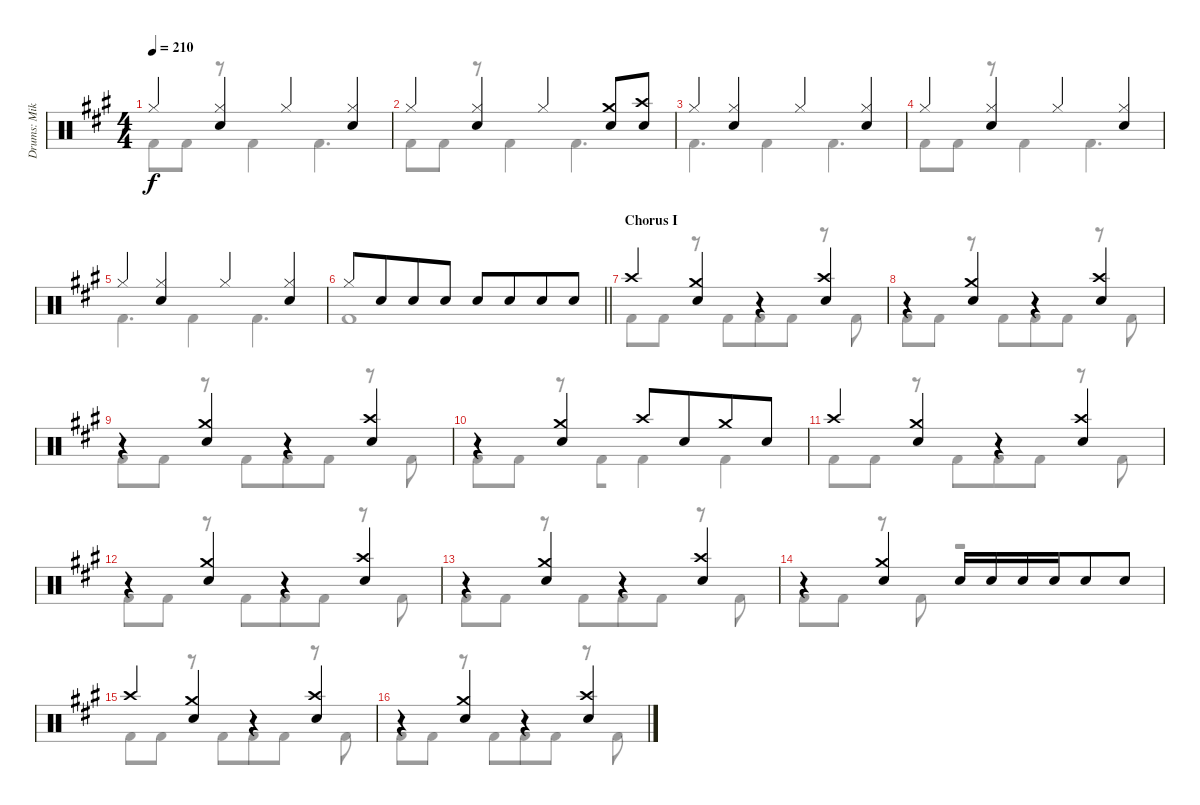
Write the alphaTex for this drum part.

\track ("Drums: Mikkey" "Drums: Mik") {instrument percussion}
\staff {score}
\articulation defaults
\voice
\ts (4 4)
\tempo 210
\clef neutral
\ks a "Hi-Hat (closed)".4{dy f}
("Hi-Hat (closed)" "Snare (hit) 2").4 "Hi-Hat (closed)".4 ("Hi-Hat (closed)" "Snare (hit) 2").4 |
"Hi-Hat (closed)".4 ("Hi-Hat (closed)" "Snare (hit) 2").4 "Hi-Hat (closed)".4 ("Crash medium (hit)" "Snare (hit) 2").8 ("Crash high (hit)" "Snare (hit) 2").8 |
"Hi-Hat (closed)".4 ("Hi-Hat (closed)" "Snare (hit) 2").4 "Hi-Hat (closed)".4 ("Hi-Hat (closed)" "Snare (hit) 2").4 |
"Hi-Hat (closed)".4 ("Hi-Hat (closed)" "Snare (hit) 2").4 "Hi-Hat (closed)".4 ("Hi-Hat (closed)" "Snare (hit) 2").4 |
"Hi-Hat (closed)".4 ("Hi-Hat (closed)" "Snare (hit) 2").4 "Hi-Hat (closed)".4 ("Hi-Hat (closed)" "Snare (hit) 2").4 |
\barLineRight lightlight "Hi-Hat (closed)".8 "Snare (hit) 2".8{beam merge} "Snare (hit) 2".8 "Snare (hit) 2".8 "Snare (hit) 2".8 "Snare (hit) 2".8{beam merge} "Snare (hit) 2".8 "Snare (hit) 2".8
|
\section ("" "Chorus I")
"Crash high (hit)".4 ("Crash medium (hit)" "Snare (hit) 2").4 r.4 ("Crash high (hit)" "Snare (hit) 2").4 |
r.4 ("Crash medium (hit)" "Snare (hit) 2").4 r.4 ("Crash high (hit)" "Snare (hit) 2").4 |
r.4 ("Crash medium (hit)" "Snare (hit) 2").4 r.4 ("Crash high (hit)" "Snare (hit) 2").4 |
r.4 ("Crash medium (hit)" "Snare (hit) 2").4 "Crash high (hit)".8 "Snare (hit) 2".8{beam merge} "Crash medium (hit)".8 "Snare (hit) 2".8 |
"Crash high (hit)".4 ("Crash medium (hit)" "Snare (hit) 2").4 r.4 ("Crash high (hit)" "Snare (hit) 2").4 |
r.4 ("Crash medium (hit)" "Snare (hit) 2").4 r.4 ("Crash high (hit)" "Snare (hit) 2").4 |
r.4 ("Crash medium (hit)" "Snare (hit) 2").4 r.4 ("Crash high (hit)" "Snare (hit) 2").4 |
r.4 ("Crash medium (hit)" "Snare (hit) 2").4 "Snare (hit) 2".16{beam merge} "Snare (hit) 2".16 "Snare (hit) 2".16 "Snare (hit) 2".16{beam merge} "Snare (hit) 2".8 "Snare (hit) 2".8 |
"Crash high (hit)".4 ("Crash medium (hit)" "Snare (hit) 2").4 r.4 ("Crash high (hit)" "Snare (hit) 2").4 |
r.4 ("Crash medium (hit)" "Snare (hit) 2").4 r.4 ("Crash high (hit)" "Snare (hit) 2").4
\voice
\clef neutral
\ottava regular
\simile none
\ks a "Kick (hit) 2".8{dy f} "Kick (hit) 2".8
r.8 "Kick (hit) 2".4 "Kick (hit) 2".4{d} |
"Kick (hit) 2".8 "Kick (hit) 2".8 r.8 "Kick (hit) 2".4 "Kick (hit) 2".4{d} |
"Kick (hit) 2".4{d} "Kick (hit) 2".4 "Kick (hit) 2".4{d} |
"Kick (hit) 2".8 "Kick (hit) 2".8 r.8 "Kick (hit) 2".4 "Kick (hit) 2".4{d} |
"Kick (hit) 2".4{d} "Kick (hit) 2".4 "Kick (hit) 2".4{d} |
\barLineRight lightlight "Kick (hit) 2".1
|
"Kick (hit) 2".8 "Kick (hit) 2".8 r.8 "Kick (hit) 2".8{beam merge} "Kick (hit) 2".8 "Kick (hit) 2".8 r.8 "Kick (hit) 2".8 |
"Kick (hit) 2".8 "Kick (hit) 2".8 r.8 "Kick (hit) 2".8{beam merge} "Kick (hit) 2".8 "Kick (hit) 2".8 r.8 "Kick (hit) 2".8 |
"Kick (hit) 2".8 "Kick (hit) 2".8 r.8 "Kick (hit) 2".8{beam merge} "Kick (hit) 2".8 "Kick (hit) 2".8 r.8 "Kick (hit) 2".8 |
"Kick (hit) 2".8 "Kick (hit) 2".8 r.8 "Kick (hit) 2".8{beam merge} "Kick (hit) 2".4 "Kick (hit) 2".4 |
"Kick (hit) 2".8 "Kick (hit) 2".8 r.8 "Kick (hit) 2".8{beam merge} "Kick (hit) 2".8 "Kick (hit) 2".8 r.8 "Kick (hit) 2".8 |
"Kick (hit) 2".8 "Kick (hit) 2".8 r.8 "Kick (hit) 2".8{beam merge} "Kick (hit) 2".8 "Kick (hit) 2".8 r.8 "Kick (hit) 2".8 |
"Kick (hit) 2".8 "Kick (hit) 2".8 r.8 "Kick (hit) 2".8{beam merge} "Kick (hit) 2".8 "Kick (hit) 2".8 r.8 "Kick (hit) 2".8 |
"Kick (hit) 2".8 "Kick (hit) 2".8 r.8 "Kick (hit) 2".8{beam merge} r.2 |
"Kick (hit) 2".8 "Kick (hit) 2".8 r.8 "Kick (hit) 2".8{beam merge} "Kick (hit) 2".8 "Kick (hit) 2".8 r.8 "Kick (hit) 2".8 |
"Kick (hit) 2".8 "Kick (hit) 2".8 r.8 "Kick (hit) 2".8{beam merge} "Kick (hit) 2".8 "Kick (hit) 2".8 r.8 "Kick (hit) 2".8
